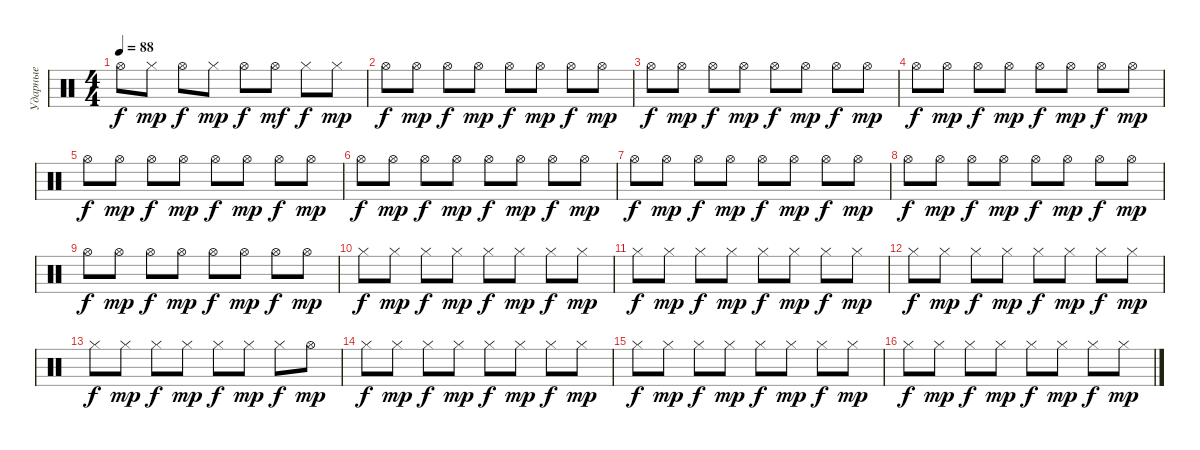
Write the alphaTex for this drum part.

\track ("Ударные" "Ударные") {instrument percussion}
\staff {score}
\articulation defaults
\ts (4 4)
\tempo 88
\clef neutral
\ks c "Hi-Hat (open)".8{dy f} "Hi-Hat (closed)".8{dy mp} "Hi-Hat (open)".8{dy f} "Hi-Hat (closed)".8{dy mp} "Hi-Hat (open)".8{dy f} "Hi-Hat (open)".8{dy mf} "Hi-Hat (closed)".8{dy f} "Hi-Hat (closed)".8{dy mp}
|
"Hi-Hat (open)".8{dy f} "Hi-Hat (open)".8{dy mp} "Hi-Hat (open)".8{dy f} "Hi-Hat (open)".8{dy mp} "Hi-Hat (open)".8{dy f} "Hi-Hat (open)".8{dy mp} "Hi-Hat (open)".8{dy f} "Hi-Hat (open)".8{dy mp} |
"Hi-Hat (open)".8{dy f} "Hi-Hat (open)".8{dy mp} "Hi-Hat (open)".8{dy f} "Hi-Hat (open)".8{dy mp} "Hi-Hat (open)".8{dy f} "Hi-Hat (open)".8{dy mp} "Hi-Hat (open)".8{dy f} "Hi-Hat (open)".8{dy mp} |
"Hi-Hat (open)".8{dy f} "Hi-Hat (open)".8{dy mp} "Hi-Hat (open)".8{dy f} "Hi-Hat (open)".8{dy mp} "Hi-Hat (open)".8{dy f} "Hi-Hat (open)".8{dy mp} "Hi-Hat (open)".8{dy f} "Hi-Hat (open)".8{dy mp} |
"Hi-Hat (open)".8{dy f} "Hi-Hat (open)".8{dy mp} "Hi-Hat (open)".8{dy f} "Hi-Hat (open)".8{dy mp} "Hi-Hat (open)".8{dy f} "Hi-Hat (open)".8{dy mp} "Hi-Hat (open)".8{dy f} "Hi-Hat (open)".8{dy mp} |
"Hi-Hat (open)".8{dy f} "Hi-Hat (open)".8{dy mp} "Hi-Hat (open)".8{dy f} "Hi-Hat (open)".8{dy mp} "Hi-Hat (open)".8{dy f} "Hi-Hat (open)".8{dy mp} "Hi-Hat (open)".8{dy f} "Hi-Hat (open)".8{dy mp} |
"Hi-Hat (open)".8{dy f} "Hi-Hat (open)".8{dy mp} "Hi-Hat (open)".8{dy f} "Hi-Hat (open)".8{dy mp} "Hi-Hat (open)".8{dy f} "Hi-Hat (open)".8{dy mp} "Hi-Hat (open)".8{dy f} "Hi-Hat (open)".8{dy mp} |
"Hi-Hat (open)".8{dy f} "Hi-Hat (open)".8{dy mp} "Hi-Hat (open)".8{dy f} "Hi-Hat (open)".8{dy mp} "Hi-Hat (open)".8{dy f} "Hi-Hat (open)".8{dy mp} "Hi-Hat (open)".8{dy f} "Hi-Hat (open)".8{dy mp} |
"Hi-Hat (open)".8{dy f} "Hi-Hat (open)".8{dy mp} "Hi-Hat (open)".8{dy f} "Hi-Hat (open)".8{dy mp} "Hi-Hat (open)".8{dy f} "Hi-Hat (open)".8{dy mp} "Hi-Hat (open)".8{dy f} "Hi-Hat (open)".8{dy mp} |
"Hi-Hat (closed)".8{dy f} "Hi-Hat (closed)".8{dy mp} "Hi-Hat (closed)".8{dy f} "Hi-Hat (closed)".8{dy mp} "Hi-Hat (closed)".8{dy f} "Hi-Hat (closed)".8{dy mp} "Hi-Hat (closed)".8{dy f} "Hi-Hat (closed)".8{dy mp} |
"Hi-Hat (closed)".8{dy f} "Hi-Hat (closed)".8{dy mp} "Hi-Hat (closed)".8{dy f} "Hi-Hat (closed)".8{dy mp} "Hi-Hat (closed)".8{dy f} "Hi-Hat (closed)".8{dy mp} "Hi-Hat (closed)".8{dy f} "Hi-Hat (closed)".8{dy mp} |
"Hi-Hat (closed)".8{dy f} "Hi-Hat (closed)".8{dy mp} "Hi-Hat (closed)".8{dy f} "Hi-Hat (closed)".8{dy mp} "Hi-Hat (closed)".8{dy f} "Hi-Hat (closed)".8{dy mp} "Hi-Hat (closed)".8{dy f} "Hi-Hat (closed)".8{dy mp} |
"Hi-Hat (closed)".8{dy f} "Hi-Hat (closed)".8{dy mp} "Hi-Hat (closed)".8{dy f} "Hi-Hat (closed)".8{dy mp} "Hi-Hat (closed)".8{dy f} "Hi-Hat (closed)".8{dy mp} "Hi-Hat (closed)".8{dy f} "Hi-Hat (open)".8{dy mp} |
"Hi-Hat (closed)".8{dy f} "Hi-Hat (closed)".8{dy mp} "Hi-Hat (closed)".8{dy f} "Hi-Hat (closed)".8{dy mp} "Hi-Hat (closed)".8{dy f} "Hi-Hat (closed)".8{dy mp} "Hi-Hat (closed)".8{dy f} "Hi-Hat (closed)".8{dy mp} |
"Hi-Hat (closed)".8{dy f} "Hi-Hat (closed)".8{dy mp} "Hi-Hat (closed)".8{dy f} "Hi-Hat (closed)".8{dy mp} "Hi-Hat (closed)".8{dy f} "Hi-Hat (closed)".8{dy mp} "Hi-Hat (closed)".8{dy f} "Hi-Hat (closed)".8{dy mp} |
"Hi-Hat (closed)".8{dy f} "Hi-Hat (closed)".8{dy mp} "Hi-Hat (closed)".8{dy f} "Hi-Hat (closed)".8{dy mp} "Hi-Hat (closed)".8{dy f} "Hi-Hat (closed)".8{dy mp} "Hi-Hat (closed)".8{dy f} "Hi-Hat (closed)".8{dy mp}
